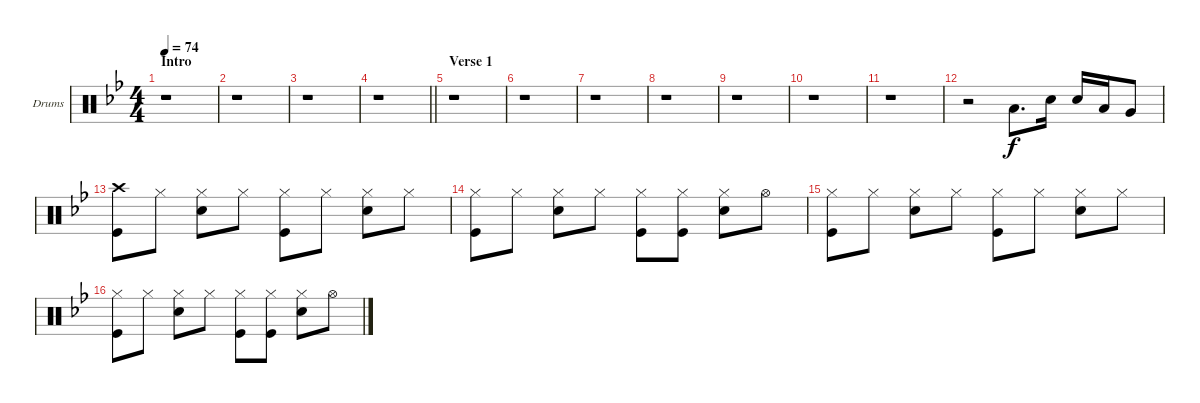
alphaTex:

\bracketExtendMode groupsimilarinstruments
\firstSystemTrackNameOrientation horizontal
\otherSystemsTrackNameOrientation horizontal
\track ("Drumkit" "Drums") {instrument percussion}
\staff {score}
\articulation defaults
\ts (4 4)
\beaming (8 2 2 2 2)
\section ("" "Intro")
\tempo 74
\clef neutral
\ks gminor
r.1{dy f} |
r.1 |
r.1 |
\barLineRight lightlight
r.1 |
\section ("" "Verse 1")
\tempo (82 hide)
r.1 |
r.1 |
r.1 |
r.1 |
r.1 |
r.1 |
r.1 |
r.2 "Low Tom (hit)".8{d} "Snare (hit) 2".16 "Snare (hit) 2".16 "Low Tom (hit)".16 "Very Low Tom (hit)".8 |
("Crash high (hit)" "Kick (hit)").8 "Hi-Hat (closed)".8 ("Hi-Hat (closed)" "Snare (hit) 2").8 "Hi-Hat (closed)".8 ("Hi-Hat (closed)" "Kick (hit)").8 "Hi-Hat (closed)".8 ("Hi-Hat (closed)" "Snare (hit) 2").8 "Hi-Hat (closed)".8 |
("Hi-Hat (closed)" "Kick (hit)").8 "Hi-Hat (closed)".8 ("Hi-Hat (closed)" "Snare (hit) 2").8 "Hi-Hat (closed)".8 ("Hi-Hat (closed)" "Kick (hit)").8 ("Hi-Hat (closed)" "Kick (hit)").8 ("Hi-Hat (closed)" "Snare (hit) 2").8 "Hi-Hat (open)".8 |
("Hi-Hat (closed)" "Kick (hit)").8 "Hi-Hat (closed)".8 ("Hi-Hat (closed)" "Snare (hit) 2").8 "Hi-Hat (closed)".8 ("Hi-Hat (closed)" "Kick (hit)").8 "Hi-Hat (closed)".8 ("Hi-Hat (closed)" "Snare (hit) 2").8 "Hi-Hat (closed)".8 |
("Hi-Hat (closed)" "Kick (hit)").8 "Hi-Hat (closed)".8 ("Hi-Hat (closed)" "Snare (hit) 2").8 "Hi-Hat (closed)".8 ("Hi-Hat (closed)" "Kick (hit)").8 ("Hi-Hat (closed)" "Kick (hit)").8 ("Hi-Hat (closed)" "Snare (hit) 2").8 "Hi-Hat (open)".8
